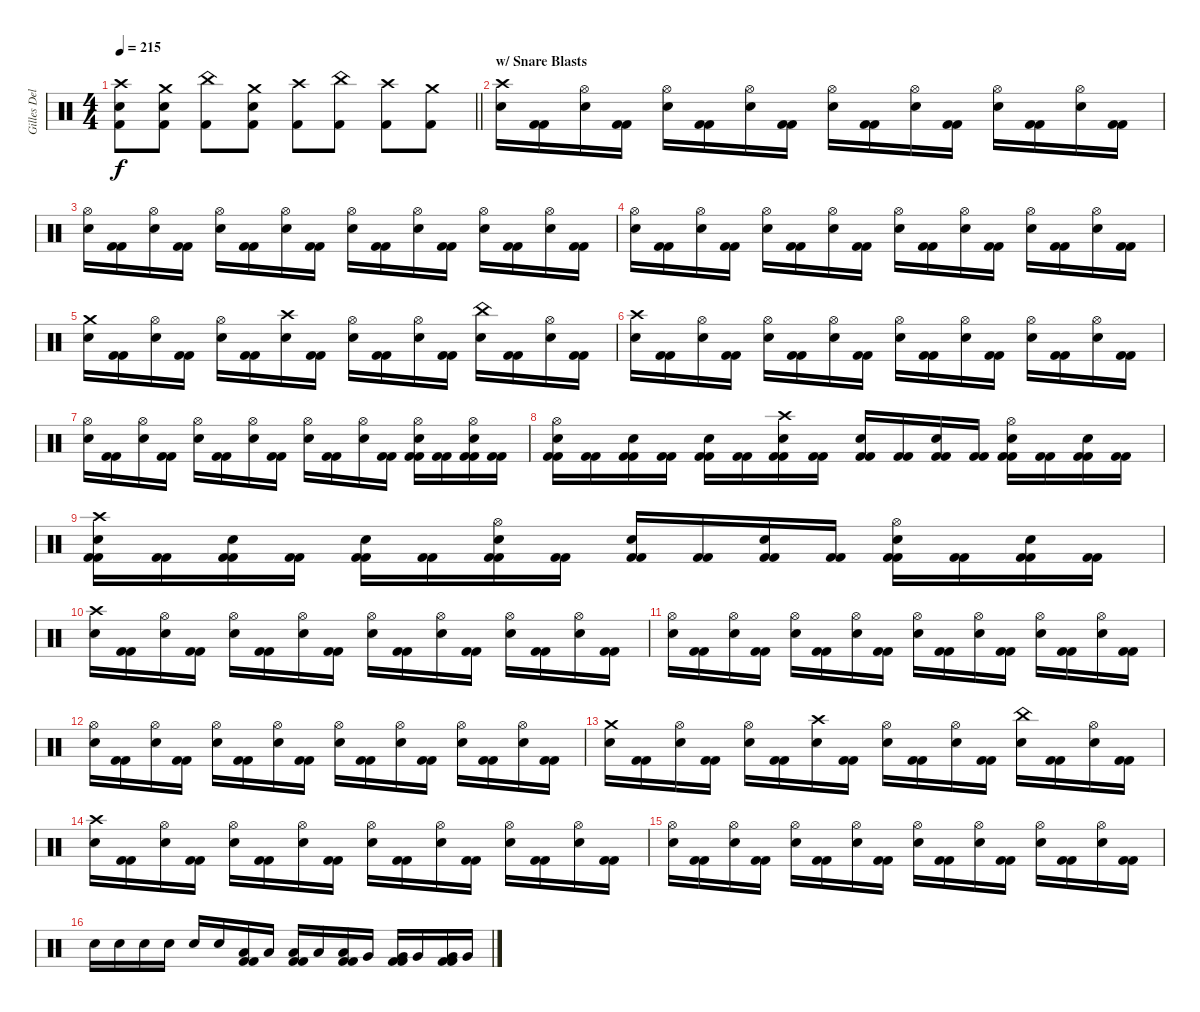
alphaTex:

\track ("Gilles Delecroix" "Gilles Del") {instrument percussion}
\staff {score}
\articulation defaults
\ts (4 4)
\tempo 215
\clef neutral
\barLineRight lightlight
\ks c
("Crash high (hit)" "Electric Snare (hit)" "Kick (hit) 2").8{dy f} ("Crash medium (hit)" "Electric Snare (hit)" "Kick (hit) 2").8 ("China (hit)" "Kick (hit) 2").8 ("Crash medium (hit)" "Electric Snare (hit)" "Kick (hit) 2").8 ("Crash high (hit)" "Kick (hit) 2").8 ("China (hit)" "Kick (hit) 2").8 ("Crash high (hit)" "Kick (hit) 2").8 ("Crash medium (hit)" "Kick (hit) 2").8 |
\section ("" "w/ Snare Blasts")
("Crash high (hit)" "Electric Snare (hit)").16 ("Kick (hit) 2" "Kick (hit) 2").16 ("Hi-Hat (open)" "Electric Snare (hit)").16 ("Kick (hit) 2" "Kick (hit) 2").16 ("Hi-Hat (open)" "Electric Snare (hit)").16 ("Kick (hit) 2" "Kick (hit) 2").16 ("Hi-Hat (open)" "Electric Snare (hit)").16 ("Kick (hit) 2" "Kick (hit) 2").16 ("Hi-Hat (open)" "Electric Snare (hit)").16 ("Kick (hit) 2" "Kick (hit) 2").16 ("Hi-Hat (open)" "Electric Snare (hit)").16 ("Kick (hit) 2" "Kick (hit) 2").16 ("Hi-Hat (open)" "Electric Snare (hit)").16 ("Kick (hit) 2" "Kick (hit) 2").16 ("Hi-Hat (open)" "Electric Snare (hit)").16 ("Kick (hit) 2" "Kick (hit) 2").16 |
("Hi-Hat (open)" "Electric Snare (hit)").16 ("Kick (hit) 2" "Kick (hit) 2").16 ("Hi-Hat (open)" "Electric Snare (hit)").16 ("Kick (hit) 2" "Kick (hit) 2").16 ("Hi-Hat (open)" "Electric Snare (hit)").16 ("Kick (hit) 2" "Kick (hit) 2").16 ("Hi-Hat (open)" "Electric Snare (hit)").16 ("Kick (hit) 2" "Kick (hit) 2").16 ("Hi-Hat (open)" "Electric Snare (hit)").16 ("Kick (hit) 2" "Kick (hit) 2").16 ("Hi-Hat (open)" "Electric Snare (hit)").16 ("Kick (hit) 2" "Kick (hit) 2").16 ("Hi-Hat (open)" "Electric Snare (hit)").16 ("Kick (hit) 2" "Kick (hit) 2").16 ("Hi-Hat (open)" "Electric Snare (hit)").16 ("Kick (hit) 2" "Kick (hit) 2").16 |
("Hi-Hat (open)" "Electric Snare (hit)").16 ("Kick (hit) 2" "Kick (hit) 2").16 ("Hi-Hat (open)" "Electric Snare (hit)").16 ("Kick (hit) 2" "Kick (hit) 2").16 ("Hi-Hat (open)" "Electric Snare (hit)").16 ("Kick (hit) 2" "Kick (hit) 2").16 ("Hi-Hat (open)" "Electric Snare (hit)").16 ("Kick (hit) 2" "Kick (hit) 2").16 ("Hi-Hat (open)" "Electric Snare (hit)").16 ("Kick (hit) 2" "Kick (hit) 2").16 ("Hi-Hat (open)" "Electric Snare (hit)").16 ("Kick (hit) 2" "Kick (hit) 2").16 ("Hi-Hat (open)" "Electric Snare (hit)").16 ("Kick (hit) 2" "Kick (hit) 2").16 ("Hi-Hat (open)" "Electric Snare (hit)").16 ("Kick (hit) 2" "Kick (hit) 2").16 |
("Crash medium (hit)" "Electric Snare (hit)").16 ("Kick (hit) 2" "Kick (hit) 2").16 ("Hi-Hat (open)" "Electric Snare (hit)").16 ("Kick (hit) 2" "Kick (hit) 2").16 ("Hi-Hat (open)" "Electric Snare (hit)").16 ("Kick (hit) 2" "Kick (hit) 2").16 ("Crash high (hit)" "Electric Snare (hit)").16 ("Kick (hit) 2" "Kick (hit) 2").16 ("Hi-Hat (open)" "Electric Snare (hit)").16 ("Kick (hit) 2" "Kick (hit) 2").16 ("Hi-Hat (open)" "Electric Snare (hit)").16 ("Kick (hit) 2" "Kick (hit) 2").16 ("China (hit)" "Electric Snare (hit)").16 ("Kick (hit) 2" "Kick (hit) 2").16 ("Hi-Hat (open)" "Electric Snare (hit)").16 ("Kick (hit) 2" "Kick (hit) 2").16 |
("Crash high (hit)" "Electric Snare (hit)").16 ("Kick (hit) 2" "Kick (hit) 2").16 ("Hi-Hat (open)" "Electric Snare (hit)").16 ("Kick (hit) 2" "Kick (hit) 2").16 ("Hi-Hat (open)" "Electric Snare (hit)").16 ("Kick (hit) 2" "Kick (hit) 2").16 ("Hi-Hat (open)" "Electric Snare (hit)").16 ("Kick (hit) 2" "Kick (hit) 2").16 ("Hi-Hat (open)" "Electric Snare (hit)").16 ("Kick (hit) 2" "Kick (hit) 2").16 ("Hi-Hat (open)" "Electric Snare (hit)").16 ("Kick (hit) 2" "Kick (hit) 2").16 ("Hi-Hat (open)" "Electric Snare (hit)").16 ("Kick (hit) 2" "Kick (hit) 2").16 ("Hi-Hat (open)" "Electric Snare (hit)").16 ("Kick (hit) 2" "Kick (hit) 2").16 |
("Hi-Hat (open)" "Electric Snare (hit)").16 ("Kick (hit) 2" "Kick (hit) 2").16 ("Hi-Hat (open)" "Electric Snare (hit)").16 ("Kick (hit) 2" "Kick (hit) 2").16 ("Hi-Hat (open)" "Electric Snare (hit)").16 ("Kick (hit) 2" "Kick (hit) 2").16 ("Hi-Hat (open)" "Electric Snare (hit)").16 ("Kick (hit) 2" "Kick (hit) 2").16 ("Hi-Hat (open)" "Electric Snare (hit)").16 ("Kick (hit) 2" "Kick (hit) 2").16 ("Hi-Hat (open)" "Electric Snare (hit)").16 ("Kick (hit) 2" "Kick (hit) 2").16 ("Hi-Hat (open)" "Electric Snare (hit)" "Kick (hit) 2" "Kick (hit) 2").16 ("Kick (hit) 2" "Kick (hit) 2").16 ("Hi-Hat (open)" "Electric Snare (hit)" "Kick (hit) 2" "Kick (hit) 2").16 ("Kick (hit) 2" "Kick (hit) 2").16 |
("Hi-Hat (open)" "Electric Snare (hit)" "Kick (hit) 2" "Kick (hit) 2").16 ("Kick (hit) 2" "Kick (hit) 2").16 ("Electric Snare (hit)" "Kick (hit) 2" "Kick (hit) 2").16 ("Kick (hit) 2" "Kick (hit) 2").16 ("Electric Snare (hit)" "Kick (hit) 2" "Kick (hit) 2").16 ("Kick (hit) 2" "Kick (hit) 2").16 ("Crash high (hit)" "Electric Snare (hit)" "Kick (hit) 2" "Kick (hit) 2").16 ("Kick (hit) 2" "Kick (hit) 2").16 ("Electric Snare (hit)" "Kick (hit) 2" "Kick (hit) 2").16 ("Kick (hit) 2" "Kick (hit) 2").16 ("Electric Snare (hit)" "Kick (hit) 2" "Kick (hit) 2").16 ("Kick (hit) 2" "Kick (hit) 2").16 ("Hi-Hat (open)" "Electric Snare (hit)" "Kick (hit) 2" "Kick (hit) 2").16 ("Kick (hit) 2" "Kick (hit) 2").16 ("Electric Snare (hit)" "Kick (hit) 2" "Kick (hit) 2").16 ("Kick (hit) 2" "Kick (hit) 2").16 |
("Crash high (hit)" "Electric Snare (hit)" "Kick (hit) 2" "Kick (hit) 2").16 ("Kick (hit) 2" "Kick (hit) 2").16 ("Electric Snare (hit)" "Kick (hit) 2" "Kick (hit) 2").16 ("Kick (hit) 2" "Kick (hit) 2").16 ("Electric Snare (hit)" "Kick (hit) 2" "Kick (hit) 2").16 ("Kick (hit) 2" "Kick (hit) 2").16 ("Hi-Hat (open)" "Electric Snare (hit)" "Kick (hit) 2" "Kick (hit) 2").16 ("Kick (hit) 2" "Kick (hit) 2").16 ("Electric Snare (hit)" "Kick (hit) 2" "Kick (hit) 2").16 ("Kick (hit) 2" "Kick (hit) 2").16 ("Electric Snare (hit)" "Kick (hit) 2" "Kick (hit) 2").16 ("Kick (hit) 2" "Kick (hit) 2").16 ("Hi-Hat (open)" "Electric Snare (hit)" "Kick (hit) 2" "Kick (hit) 2").16 ("Kick (hit) 2" "Kick (hit) 2").16 ("Electric Snare (hit)" "Kick (hit) 2" "Kick (hit) 2").16 ("Kick (hit) 2" "Kick (hit) 2").16 |
("Crash high (hit)" "Electric Snare (hit)").16 ("Kick (hit) 2" "Kick (hit) 2").16 ("Hi-Hat (open)" "Electric Snare (hit)").16 ("Kick (hit) 2" "Kick (hit) 2").16 ("Hi-Hat (open)" "Electric Snare (hit)").16 ("Kick (hit) 2" "Kick (hit) 2").16 ("Hi-Hat (open)" "Electric Snare (hit)").16 ("Kick (hit) 2" "Kick (hit) 2").16 ("Hi-Hat (open)" "Electric Snare (hit)").16 ("Kick (hit) 2" "Kick (hit) 2").16 ("Hi-Hat (open)" "Electric Snare (hit)").16 ("Kick (hit) 2" "Kick (hit) 2").16 ("Hi-Hat (open)" "Electric Snare (hit)").16 ("Kick (hit) 2" "Kick (hit) 2").16 ("Hi-Hat (open)" "Electric Snare (hit)").16 ("Kick (hit) 2" "Kick (hit) 2").16 |
("Hi-Hat (open)" "Electric Snare (hit)").16 ("Kick (hit) 2" "Kick (hit) 2").16 ("Hi-Hat (open)" "Electric Snare (hit)").16 ("Kick (hit) 2" "Kick (hit) 2").16 ("Hi-Hat (open)" "Electric Snare (hit)").16 ("Kick (hit) 2" "Kick (hit) 2").16 ("Hi-Hat (open)" "Electric Snare (hit)").16 ("Kick (hit) 2" "Kick (hit) 2").16 ("Hi-Hat (open)" "Electric Snare (hit)").16 ("Kick (hit) 2" "Kick (hit) 2").16 ("Hi-Hat (open)" "Electric Snare (hit)").16 ("Kick (hit) 2" "Kick (hit) 2").16 ("Hi-Hat (open)" "Electric Snare (hit)").16 ("Kick (hit) 2" "Kick (hit) 2").16 ("Hi-Hat (open)" "Electric Snare (hit)").16 ("Kick (hit) 2" "Kick (hit) 2").16 |
("Hi-Hat (open)" "Electric Snare (hit)").16 ("Kick (hit) 2" "Kick (hit) 2").16 ("Hi-Hat (open)" "Electric Snare (hit)").16 ("Kick (hit) 2" "Kick (hit) 2").16 ("Hi-Hat (open)" "Electric Snare (hit)").16 ("Kick (hit) 2" "Kick (hit) 2").16 ("Hi-Hat (open)" "Electric Snare (hit)").16 ("Kick (hit) 2" "Kick (hit) 2").16 ("Hi-Hat (open)" "Electric Snare (hit)").16 ("Kick (hit) 2" "Kick (hit) 2").16 ("Hi-Hat (open)" "Electric Snare (hit)").16 ("Kick (hit) 2" "Kick (hit) 2").16 ("Hi-Hat (open)" "Electric Snare (hit)").16 ("Kick (hit) 2" "Kick (hit) 2").16 ("Hi-Hat (open)" "Electric Snare (hit)").16 ("Kick (hit) 2" "Kick (hit) 2").16 |
("Crash medium (hit)" "Electric Snare (hit)").16 ("Kick (hit) 2" "Kick (hit) 2").16 ("Hi-Hat (open)" "Electric Snare (hit)").16 ("Kick (hit) 2" "Kick (hit) 2").16 ("Hi-Hat (open)" "Electric Snare (hit)").16 ("Kick (hit) 2" "Kick (hit) 2").16 ("Crash high (hit)" "Electric Snare (hit)").16 ("Kick (hit) 2" "Kick (hit) 2").16 ("Hi-Hat (open)" "Electric Snare (hit)").16 ("Kick (hit) 2" "Kick (hit) 2").16 ("Hi-Hat (open)" "Electric Snare (hit)").16 ("Kick (hit) 2" "Kick (hit) 2").16 ("China (hit)" "Electric Snare (hit)").16 ("Kick (hit) 2" "Kick (hit) 2").16 ("Hi-Hat (open)" "Electric Snare (hit)").16 ("Kick (hit) 2" "Kick (hit) 2").16 |
("Crash high (hit)" "Electric Snare (hit)").16 ("Kick (hit) 2" "Kick (hit) 2").16 ("Hi-Hat (open)" "Electric Snare (hit)").16 ("Kick (hit) 2" "Kick (hit) 2").16 ("Hi-Hat (open)" "Electric Snare (hit)").16 ("Kick (hit) 2" "Kick (hit) 2").16 ("Hi-Hat (open)" "Electric Snare (hit)").16 ("Kick (hit) 2" "Kick (hit) 2").16 ("Hi-Hat (open)" "Electric Snare (hit)").16 ("Kick (hit) 2" "Kick (hit) 2").16 ("Hi-Hat (open)" "Electric Snare (hit)").16 ("Kick (hit) 2" "Kick (hit) 2").16 ("Hi-Hat (open)" "Electric Snare (hit)").16 ("Kick (hit) 2" "Kick (hit) 2").16 ("Hi-Hat (open)" "Electric Snare (hit)").16 ("Kick (hit) 2" "Kick (hit) 2").16 |
("Hi-Hat (open)" "Electric Snare (hit)").16 ("Kick (hit) 2" "Kick (hit) 2").16 ("Hi-Hat (open)" "Electric Snare (hit)").16 ("Kick (hit) 2" "Kick (hit) 2").16 ("Hi-Hat (open)" "Electric Snare (hit)").16 ("Kick (hit) 2" "Kick (hit) 2").16 ("Hi-Hat (open)" "Electric Snare (hit)").16 ("Kick (hit) 2" "Kick (hit) 2").16 ("Hi-Hat (open)" "Electric Snare (hit)").16 ("Kick (hit) 2" "Kick (hit) 2").16 ("Hi-Hat (open)" "Electric Snare (hit)").16 ("Kick (hit) 2" "Kick (hit) 2").16 ("Hi-Hat (open)" "Electric Snare (hit)").16 ("Kick (hit) 2" "Kick (hit) 2").16 ("Hi-Hat (open)" "Electric Snare (hit)").16 ("Kick (hit) 2" "Kick (hit) 2").16 |
"Electric Snare (hit)".16 "Electric Snare (hit)".16 "Electric Snare (hit)".16 "Electric Snare (hit)".16 "Electric Snare (hit)".16 "Electric Snare (hit)".16 ("Low Tom (hit)" "Kick (hit) 2" "Kick (hit) 2").16 "Low Tom (hit)".16 ("Low Tom (hit)" "Kick (hit) 2" "Kick (hit) 2").16 "Low Tom (hit)".16 ("Low Tom (hit)" "Kick (hit) 2" "Kick (hit) 2").16 "Very Low Tom (hit)".16 ("Very Low Tom (hit)" "Kick (hit) 2" "Kick (hit) 2").16 "Very Low Tom (hit)".16 ("Very Low Tom (hit)" "Kick (hit) 2" "Kick (hit) 2").16 "Very Low Tom (hit)".16
